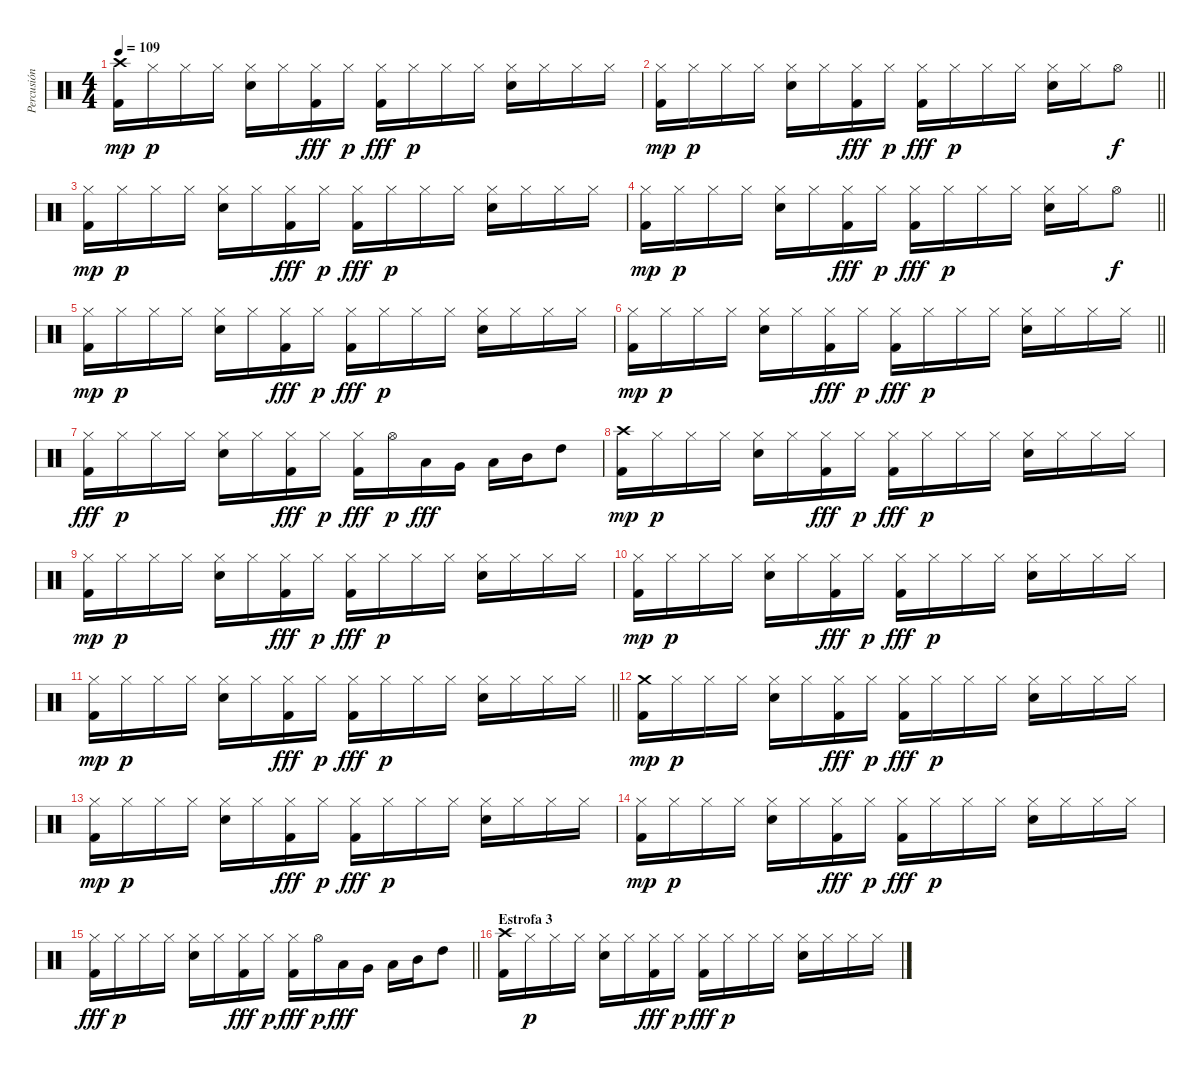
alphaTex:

\track ("Percusión" "Percusión") {instrument percussion}
\staff {score}
\articulation defaults
\ts (4 4)
\tempo 109
\clef neutral
\ks c
("Crash high (hit)" "Kick (hit) 2").16{dy mp} "Hi-Hat (closed)".16{dy p} "Hi-Hat (closed)".16 "Hi-Hat (closed)".16 ("Hi-Hat (closed)" "Snare (hit) 2").16 "Hi-Hat (closed)".16 ("Hi-Hat (closed)" "Kick (hit) 2").16{dy fff} "Hi-Hat (closed)".16{dy p} ("Hi-Hat (closed)" "Kick (hit) 2").16{dy fff} "Hi-Hat (closed)".16{dy p} "Hi-Hat (closed)".16 "Hi-Hat (closed)".16 ("Hi-Hat (closed)" "Snare (hit) 2").16 "Hi-Hat (closed)".16 "Hi-Hat (closed)".16 "Hi-Hat (closed)".16 |
\barLineRight lightlight
("Hi-Hat (closed)" "Kick (hit) 2").16{dy mp} "Hi-Hat (closed)".16{dy p} "Hi-Hat (closed)".16 "Hi-Hat (closed)".16 ("Hi-Hat (closed)" "Snare (hit) 2").16 "Hi-Hat (closed)".16 ("Hi-Hat (closed)" "Kick (hit) 2").16{dy fff} "Hi-Hat (closed)".16{dy p} ("Hi-Hat (closed)" "Kick (hit) 2").16{dy fff} "Hi-Hat (closed)".16{dy p} "Hi-Hat (closed)".16 "Hi-Hat (closed)".16 ("Hi-Hat (closed)" "Snare (hit) 2").16 "Hi-Hat (closed)".16 "Hi-Hat (open)".8{dy f} |
("Hi-Hat (closed)" "Kick (hit) 2").16{dy mp} "Hi-Hat (closed)".16{dy p} "Hi-Hat (closed)".16 "Hi-Hat (closed)".16 ("Hi-Hat (closed)" "Snare (hit) 2").16 "Hi-Hat (closed)".16 ("Hi-Hat (closed)" "Kick (hit) 2").16{dy fff} "Hi-Hat (closed)".16{dy p} ("Hi-Hat (closed)" "Kick (hit) 2").16{dy fff} "Hi-Hat (closed)".16{dy p} "Hi-Hat (closed)".16 "Hi-Hat (closed)".16 ("Hi-Hat (closed)" "Snare (hit) 2").16 "Hi-Hat (closed)".16 "Hi-Hat (closed)".16 "Hi-Hat (closed)".16 |
\barLineRight lightlight
("Hi-Hat (closed)" "Kick (hit) 2").16{dy mp} "Hi-Hat (closed)".16{dy p} "Hi-Hat (closed)".16 "Hi-Hat (closed)".16 ("Hi-Hat (closed)" "Snare (hit) 2").16 "Hi-Hat (closed)".16 ("Hi-Hat (closed)" "Kick (hit) 2").16{dy fff} "Hi-Hat (closed)".16{dy p} ("Hi-Hat (closed)" "Kick (hit) 2").16{dy fff} "Hi-Hat (closed)".16{dy p} "Hi-Hat (closed)".16 "Hi-Hat (closed)".16 ("Hi-Hat (closed)" "Snare (hit) 2").16 "Hi-Hat (closed)".16 "Hi-Hat (open)".8{dy f} |
("Hi-Hat (closed)" "Kick (hit) 2").16{dy mp} "Hi-Hat (closed)".16{dy p} "Hi-Hat (closed)".16 "Hi-Hat (closed)".16 ("Hi-Hat (closed)" "Snare (hit) 2").16 "Hi-Hat (closed)".16 ("Hi-Hat (closed)" "Kick (hit) 2").16{dy fff} "Hi-Hat (closed)".16{dy p} ("Hi-Hat (closed)" "Kick (hit) 2").16{dy fff} "Hi-Hat (closed)".16{dy p} "Hi-Hat (closed)".16 "Hi-Hat (closed)".16 ("Hi-Hat (closed)" "Snare (hit) 2").16 "Hi-Hat (closed)".16 "Hi-Hat (closed)".16 "Hi-Hat (closed)".16 |
\barLineRight lightlight
("Hi-Hat (closed)" "Kick (hit) 2").16{dy mp} "Hi-Hat (closed)".16{dy p} "Hi-Hat (closed)".16 "Hi-Hat (closed)".16 ("Hi-Hat (closed)" "Snare (hit) 2").16 "Hi-Hat (closed)".16 ("Hi-Hat (closed)" "Kick (hit) 2").16{dy fff} "Hi-Hat (closed)".16{dy p} ("Hi-Hat (closed)" "Kick (hit) 2").16{dy fff} "Hi-Hat (closed)".16{dy p} "Hi-Hat (closed)".16 "Hi-Hat (closed)".16 ("Hi-Hat (closed)" "Snare (hit) 2").16 "Hi-Hat (closed)".16 "Hi-Hat (closed)".16 "Hi-Hat (closed)".16 |
("Hi-Hat (closed)" "Kick (hit) 2").16{dy fff} "Hi-Hat (closed)".16{dy p} "Hi-Hat (closed)".16 "Hi-Hat (closed)".16 ("Hi-Hat (closed)" "Snare (hit) 2").16 "Hi-Hat (closed)".16 ("Hi-Hat (closed)" "Kick (hit) 2").16{dy fff} "Hi-Hat (closed)".16{dy p} ("Hi-Hat (closed)" "Kick (hit) 2").16{dy fff} "Hi-Hat (open)".16{dy p} "Low Floor Tom (hit)".16{dy fff} "Very Low Tom (hit)".16 "Low Tom (hit)".16 "Mid Tom (hit)".16 "High Tom (hit)".8 |
("Crash high (hit)" "Kick (hit) 2").16{dy mp} "Hi-Hat (closed)".16{dy p} "Hi-Hat (closed)".16 "Hi-Hat (closed)".16 ("Hi-Hat (closed)" "Snare (hit) 2").16 "Hi-Hat (closed)".16 ("Hi-Hat (closed)" "Kick (hit) 2").16{dy fff} "Hi-Hat (closed)".16{dy p} ("Hi-Hat (closed)" "Kick (hit) 2").16{dy fff} "Hi-Hat (closed)".16{dy p} "Hi-Hat (closed)".16 "Hi-Hat (closed)".16 ("Hi-Hat (closed)" "Snare (hit) 2").16 "Hi-Hat (closed)".16 "Hi-Hat (closed)".16 "Hi-Hat (closed)".16 |
("Hi-Hat (closed)" "Kick (hit) 2").16{dy mp} "Hi-Hat (closed)".16{dy p} "Hi-Hat (closed)".16 "Hi-Hat (closed)".16 ("Hi-Hat (closed)" "Snare (hit) 2").16 "Hi-Hat (closed)".16 ("Hi-Hat (closed)" "Kick (hit) 2").16{dy fff} "Hi-Hat (closed)".16{dy p} ("Hi-Hat (closed)" "Kick (hit) 2").16{dy fff} "Hi-Hat (closed)".16{dy p} "Hi-Hat (closed)".16 "Hi-Hat (closed)".16 ("Hi-Hat (closed)" "Snare (hit) 2").16 "Hi-Hat (closed)".16 "Hi-Hat (closed)".16 "Hi-Hat (closed)".16 |
("Hi-Hat (closed)" "Kick (hit) 2").16{dy mp} "Hi-Hat (closed)".16{dy p} "Hi-Hat (closed)".16 "Hi-Hat (closed)".16 ("Hi-Hat (closed)" "Snare (hit) 2").16 "Hi-Hat (closed)".16 ("Hi-Hat (closed)" "Kick (hit) 2").16{dy fff} "Hi-Hat (closed)".16{dy p} ("Hi-Hat (closed)" "Kick (hit) 2").16{dy fff} "Hi-Hat (closed)".16{dy p} "Hi-Hat (closed)".16 "Hi-Hat (closed)".16 ("Hi-Hat (closed)" "Snare (hit) 2").16 "Hi-Hat (closed)".16 "Hi-Hat (closed)".16 "Hi-Hat (closed)".16 |
\barLineRight lightlight
("Hi-Hat (closed)" "Kick (hit) 2").16{dy mp} "Hi-Hat (closed)".16{dy p} "Hi-Hat (closed)".16 "Hi-Hat (closed)".16 ("Hi-Hat (closed)" "Snare (hit) 2").16 "Hi-Hat (closed)".16 ("Hi-Hat (closed)" "Kick (hit) 2").16{dy fff} "Hi-Hat (closed)".16{dy p} ("Hi-Hat (closed)" "Kick (hit) 2").16{dy fff} "Hi-Hat (closed)".16{dy p} "Hi-Hat (closed)".16 "Hi-Hat (closed)".16 ("Hi-Hat (closed)" "Snare (hit) 2").16 "Hi-Hat (closed)".16 "Hi-Hat (closed)".16 "Hi-Hat (closed)".16 |
("Crash medium (hit)" "Kick (hit) 2").16{dy mp} "Hi-Hat (closed)".16{dy p} "Hi-Hat (closed)".16 "Hi-Hat (closed)".16 ("Hi-Hat (closed)" "Snare (hit) 2").16 "Hi-Hat (closed)".16 ("Hi-Hat (closed)" "Kick (hit) 2").16{dy fff} "Hi-Hat (closed)".16{dy p} ("Hi-Hat (closed)" "Kick (hit) 2").16{dy fff} "Hi-Hat (closed)".16{dy p} "Hi-Hat (closed)".16 "Hi-Hat (closed)".16 ("Hi-Hat (closed)" "Snare (hit) 2").16 "Hi-Hat (closed)".16 "Hi-Hat (closed)".16 "Hi-Hat (closed)".16 |
("Hi-Hat (closed)" "Kick (hit) 2").16{dy mp} "Hi-Hat (closed)".16{dy p} "Hi-Hat (closed)".16 "Hi-Hat (closed)".16 ("Hi-Hat (closed)" "Snare (hit) 2").16 "Hi-Hat (closed)".16 ("Hi-Hat (closed)" "Kick (hit) 2").16{dy fff} "Hi-Hat (closed)".16{dy p} ("Hi-Hat (closed)" "Kick (hit) 2").16{dy fff} "Hi-Hat (closed)".16{dy p} "Hi-Hat (closed)".16 "Hi-Hat (closed)".16 ("Hi-Hat (closed)" "Snare (hit) 2").16 "Hi-Hat (closed)".16 "Hi-Hat (closed)".16 "Hi-Hat (closed)".16 |
("Hi-Hat (closed)" "Kick (hit) 2").16{dy mp} "Hi-Hat (closed)".16{dy p} "Hi-Hat (closed)".16 "Hi-Hat (closed)".16 ("Hi-Hat (closed)" "Snare (hit) 2").16 "Hi-Hat (closed)".16 ("Hi-Hat (closed)" "Kick (hit) 2").16{dy fff} "Hi-Hat (closed)".16{dy p} ("Hi-Hat (closed)" "Kick (hit) 2").16{dy fff} "Hi-Hat (closed)".16{dy p} "Hi-Hat (closed)".16 "Hi-Hat (closed)".16 ("Hi-Hat (closed)" "Snare (hit) 2").16 "Hi-Hat (closed)".16 "Hi-Hat (closed)".16 "Hi-Hat (closed)".16 |
\barLineRight lightlight
("Hi-Hat (closed)" "Kick (hit) 2").16{dy fff} "Hi-Hat (closed)".16{dy p} "Hi-Hat (closed)".16 "Hi-Hat (closed)".16 ("Hi-Hat (closed)" "Snare (hit) 2").16 "Hi-Hat (closed)".16 ("Hi-Hat (closed)" "Kick (hit) 2").16{dy fff} "Hi-Hat (closed)".16{dy p} ("Hi-Hat (closed)" "Kick (hit) 2").16{dy fff} "Hi-Hat (open)".16{dy p} "Low Floor Tom (hit)".16{dy fff} "Very Low Tom (hit)".16 "Low Tom (hit)".16 "Mid Tom (hit)".16 "High Tom (hit)".8 |
\section ("" "Estrofa 3")
("Crash high (hit)" "Kick (hit) 2").16 "Hi-Hat (closed)".16{dy p} "Hi-Hat (closed)".16 "Hi-Hat (closed)".16 ("Hi-Hat (closed)" "Snare (hit) 2").16 "Hi-Hat (closed)".16 ("Hi-Hat (closed)" "Kick (hit) 2").16{dy fff} "Hi-Hat (closed)".16{dy p} ("Hi-Hat (closed)" "Kick (hit) 2").16{dy fff} "Hi-Hat (closed)".16{dy p} "Hi-Hat (closed)".16 "Hi-Hat (closed)".16 ("Hi-Hat (closed)" "Snare (hit) 2").16 "Hi-Hat (closed)".16 "Hi-Hat (closed)".16 "Hi-Hat (closed)".16
